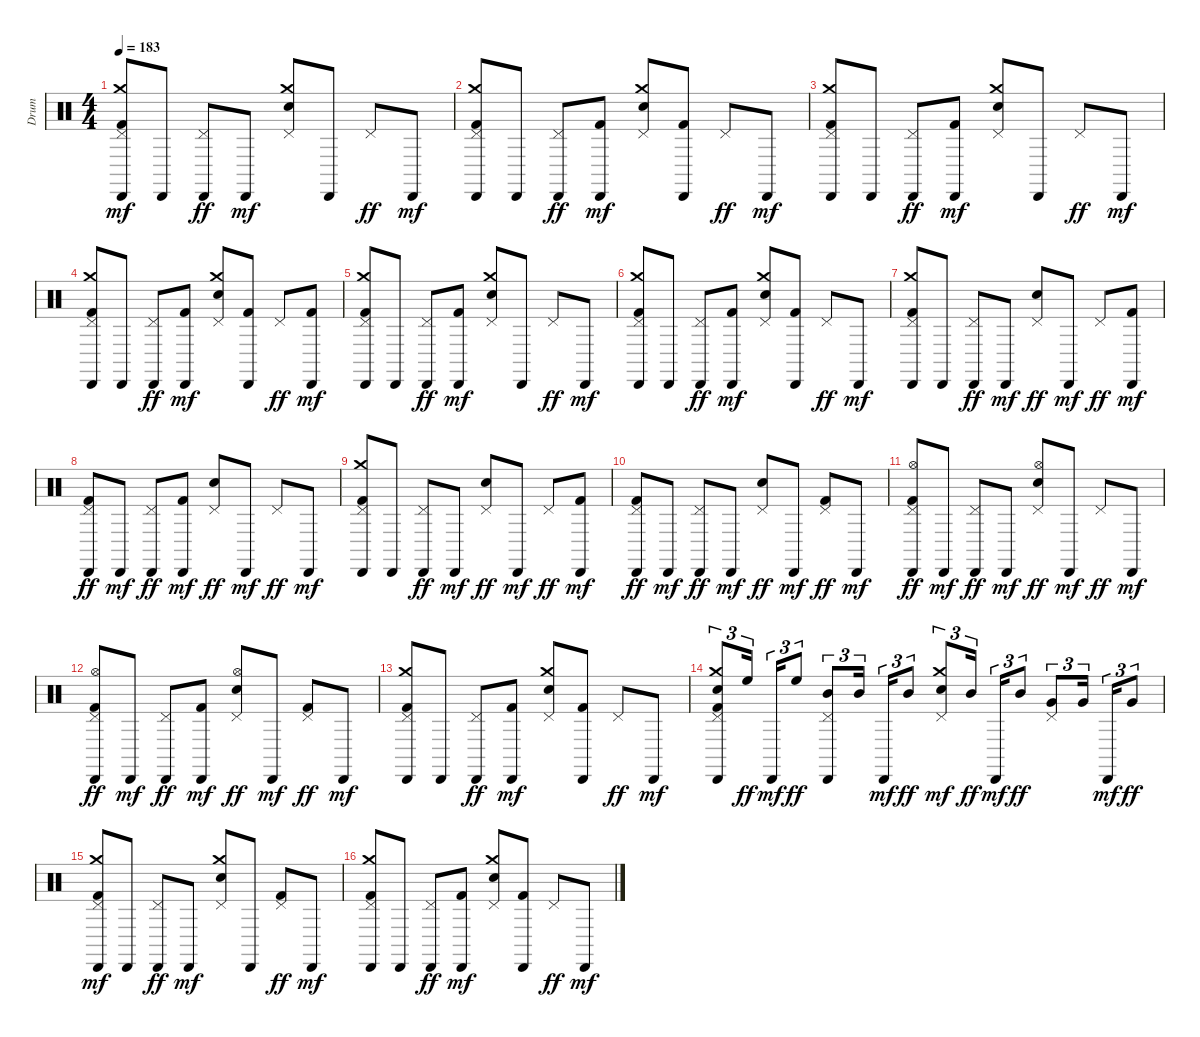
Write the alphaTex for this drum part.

\track ("Drum" "Drum") {instrument percussion}
\staff {score}
\articulation defaults
\ts (4 4)
\tempo 183
\clef neutral
\ks c
("Cabasa (hit)" "Kick (hit) 2" "Pedal Hi-Hat (hit)" "Crash medium (hit)").8{dy mf} "Cabasa (hit)".8 ("Cabasa (hit)" "Pedal Hi-Hat (hit)").8{dy ff} "Cabasa (hit)".8{dy mf} ("Electric Snare (hit)" "Pedal Hi-Hat (hit)" "Crash medium (hit)").8 "Cabasa (hit)".8 "Pedal Hi-Hat (hit)".8{dy ff} "Cabasa (hit)".8{dy mf} |
("Cabasa (hit)" "Kick (hit) 2" "Pedal Hi-Hat (hit)" "Crash medium (hit)").8 "Cabasa (hit)".8 ("Cabasa (hit)" "Pedal Hi-Hat (hit)").8{dy ff} ("Cabasa (hit)" "Kick (hit) 2").8{dy mf} ("Electric Snare (hit)" "Pedal Hi-Hat (hit)" "Crash medium (hit)").8 ("Cabasa (hit)" "Kick (hit) 2").8 "Pedal Hi-Hat (hit)".8{dy ff} "Cabasa (hit)".8{dy mf} |
("Cabasa (hit)" "Kick (hit) 2" "Pedal Hi-Hat (hit)" "Crash medium (hit)").8 "Cabasa (hit)".8 ("Cabasa (hit)" "Pedal Hi-Hat (hit)").8{dy ff} ("Cabasa (hit)" "Kick (hit) 2").8{dy mf} ("Electric Snare (hit)" "Pedal Hi-Hat (hit)" "Crash medium (hit)").8 "Cabasa (hit)".8 "Pedal Hi-Hat (hit)".8{dy ff} "Cabasa (hit)".8{dy mf} |
("Cabasa (hit)" "Kick (hit) 2" "Pedal Hi-Hat (hit)" "Crash medium (hit)").8 "Cabasa (hit)".8 ("Cabasa (hit)" "Pedal Hi-Hat (hit)").8{dy ff} ("Cabasa (hit)" "Kick (hit) 2").8{dy mf} ("Electric Snare (hit)" "Pedal Hi-Hat (hit)" "Crash medium (hit)").8 ("Cabasa (hit)" "Kick (hit) 2").8 "Pedal Hi-Hat (hit)".8{dy ff} ("Cabasa (hit)" "Kick (hit) 2").8{dy mf} |
("Cabasa (hit)" "Kick (hit) 2" "Pedal Hi-Hat (hit)" "Crash medium (hit)").8 "Cabasa (hit)".8 ("Cabasa (hit)" "Pedal Hi-Hat (hit)").8{dy ff} ("Cabasa (hit)" "Kick (hit) 2").8{dy mf} ("Electric Snare (hit)" "Pedal Hi-Hat (hit)" "Crash medium (hit)").8 "Cabasa (hit)".8 "Pedal Hi-Hat (hit)".8{dy ff} "Cabasa (hit)".8{dy mf} |
("Cabasa (hit)" "Kick (hit) 2" "Pedal Hi-Hat (hit)" "Crash medium (hit)").8 "Cabasa (hit)".8 ("Cabasa (hit)" "Pedal Hi-Hat (hit)").8{dy ff} ("Cabasa (hit)" "Kick (hit) 2").8{dy mf} ("Electric Snare (hit)" "Pedal Hi-Hat (hit)" "Crash medium (hit)").8 ("Cabasa (hit)" "Kick (hit) 2").8 "Pedal Hi-Hat (hit)".8{dy ff} "Cabasa (hit)".8{dy mf} |
("Cabasa (hit)" "Kick (hit) 2" "Pedal Hi-Hat (hit)" "Crash medium (hit)").8 "Cabasa (hit)".8 ("Cabasa (hit)" "Pedal Hi-Hat (hit)").8{dy ff} "Cabasa (hit)".8{dy mf} ("Electric Snare (hit)" "Pedal Hi-Hat (hit)").8{dy ff} "Cabasa (hit)".8{dy mf} "Pedal Hi-Hat (hit)".8{dy ff} ("Cabasa (hit)" "Kick (hit) 2").8{dy mf} |
("Cabasa (hit)" "Kick (hit) 2" "Pedal Hi-Hat (hit)").8{dy ff} "Cabasa (hit)".8{dy mf} ("Cabasa (hit)" "Pedal Hi-Hat (hit)").8{dy ff} ("Cabasa (hit)" "Kick (hit) 2").8{dy mf} ("Electric Snare (hit)" "Pedal Hi-Hat (hit)").8{dy ff} "Cabasa (hit)".8{dy mf} "Pedal Hi-Hat (hit)".8{dy ff} "Cabasa (hit)".8{dy mf} |
("Cabasa (hit)" "Kick (hit) 2" "Pedal Hi-Hat (hit)" "Crash medium (hit)").8 "Cabasa (hit)".8 ("Cabasa (hit)" "Pedal Hi-Hat (hit)").8{dy ff} "Cabasa (hit)".8{dy mf} ("Electric Snare (hit)" "Pedal Hi-Hat (hit)").8{dy ff} "Cabasa (hit)".8{dy mf} "Pedal Hi-Hat (hit)".8{dy ff} ("Cabasa (hit)" "Kick (hit) 2").8{dy mf} |
("Cabasa (hit)" "Kick (hit) 2" "Pedal Hi-Hat (hit)").8{dy ff} "Cabasa (hit)".8{dy mf} ("Cabasa (hit)" "Pedal Hi-Hat (hit)").8{dy ff} "Cabasa (hit)".8{dy mf} ("Electric Snare (hit)" "Pedal Hi-Hat (hit)").8{dy ff} "Cabasa (hit)".8{dy mf} ("Kick (hit) 2" "Pedal Hi-Hat (hit)").8{dy ff} "Cabasa (hit)".8{dy mf} |
("Cabasa (hit)" "Kick (hit) 2" "Pedal Hi-Hat (hit)" "Hi-Hat (open)").8{dy ff} "Cabasa (hit)".8{dy mf} ("Cabasa (hit)" "Pedal Hi-Hat (hit)").8{dy ff} "Cabasa (hit)".8{dy mf} ("Electric Snare (hit)" "Pedal Hi-Hat (hit)" "Hi-Hat (open)").8{dy ff} "Cabasa (hit)".8{dy mf} "Pedal Hi-Hat (hit)".8{dy ff} "Cabasa (hit)".8{dy mf} |
("Cabasa (hit)" "Kick (hit) 2" "Pedal Hi-Hat (hit)" "Hi-Hat (open)").8{dy ff} "Cabasa (hit)".8{dy mf} ("Cabasa (hit)" "Pedal Hi-Hat (hit)").8{dy ff} ("Cabasa (hit)" "Kick (hit) 2").8{dy mf} ("Electric Snare (hit)" "Pedal Hi-Hat (hit)" "Hi-Hat (open)").8{dy ff} "Cabasa (hit)".8{dy mf} ("Kick (hit) 2" "Pedal Hi-Hat (hit)").8{dy ff} "Cabasa (hit)".8{dy mf} |
("Cabasa (hit)" "Kick (hit) 2" "Pedal Hi-Hat (hit)" "Crash medium (hit)").8 "Cabasa (hit)".8 ("Cabasa (hit)" "Pedal Hi-Hat (hit)").8{dy ff} ("Cabasa (hit)" "Kick (hit) 2").8{dy mf} ("Electric Snare (hit)" "Pedal Hi-Hat (hit)" "Crash medium (hit)").8 ("Cabasa (hit)" "Kick (hit) 2").8 "Pedal Hi-Hat (hit)".8{dy ff} "Cabasa (hit)".8{dy mf} |
("Cabasa (hit)" "Kick (hit) 2" "Electric Snare (hit)" "Pedal Hi-Hat (hit)" "Crash medium (hit)").8{tu (3 2)} "High Floor Tom (hit)".16{tu (3 2) dy ff beam splitsecondary} "Cabasa (hit)".16{tu (3 2) dy mf} "High Floor Tom (hit)".8{tu (3 2) dy ff} ("Cabasa (hit)" "Mid Tom (hit)" "Pedal Hi-Hat (hit)").8{tu (3 2)} "Mid Tom (hit)".16{tu (3 2) beam splitsecondary} "Cabasa (hit)".16{tu (3 2) dy mf} "Mid Tom (hit)".8{tu (3 2) dy ff} ("Electric Snare (hit)" "Pedal Hi-Hat (hit)" "Crash medium (hit)").8{tu (3 2) dy mf} "Mid Tom (hit)".16{tu (3 2) dy ff beam splitsecondary} "Cabasa (hit)".16{tu (3 2) dy mf} "Mid Tom (hit)".8{tu (3 2) dy ff} ("Very Low Tom (hit)" "Pedal Hi-Hat (hit)").8{tu (3 2)} "Very Low Tom (hit)".16{tu (3 2) beam splitsecondary} "Cabasa (hit)".16{tu (3 2) dy mf} "Very Low Tom (hit)".8{tu (3 2) dy ff} |
("Cabasa (hit)" "Kick (hit) 2" "Pedal Hi-Hat (hit)" "Crash medium (hit)").8{dy mf} "Cabasa (hit)".8 ("Cabasa (hit)" "Pedal Hi-Hat (hit)").8{dy ff} "Cabasa (hit)".8{dy mf} ("Electric Snare (hit)" "Pedal Hi-Hat (hit)" "Crash medium (hit)").8 "Cabasa (hit)".8 ("Kick (hit) 2" "Pedal Hi-Hat (hit)").8{dy ff} "Cabasa (hit)".8{dy mf} |
("Cabasa (hit)" "Kick (hit) 2" "Pedal Hi-Hat (hit)" "Crash medium (hit)").8 "Cabasa (hit)".8 ("Cabasa (hit)" "Pedal Hi-Hat (hit)").8{dy ff} ("Cabasa (hit)" "Kick (hit) 2").8{dy mf} ("Electric Snare (hit)" "Pedal Hi-Hat (hit)" "Crash medium (hit)").8 ("Cabasa (hit)" "Kick (hit) 2").8 "Pedal Hi-Hat (hit)".8{dy ff} "Cabasa (hit)".8{dy mf}
